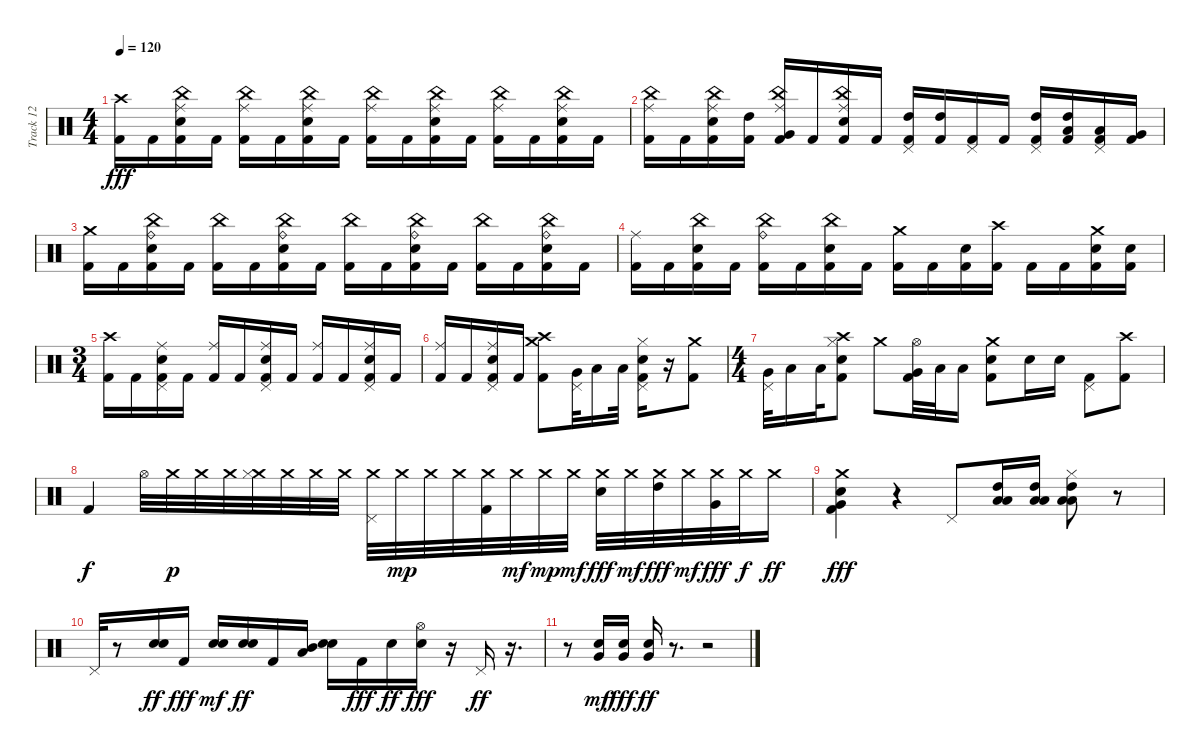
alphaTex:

\track ("Track 12" "Track 12") {instrument percussion}
\staff {score}
\articulation defaults
\ts (4 4)
\tempo 120
\clef neutral
\ks c
("Crash high (hit)" "Kick (hit) 2").16{dy fff} "Kick (hit) 2".16 ("Ride (middle)" "China (hit)" "Snare (hit) 2" "Kick (hit) 2").16 "Kick (hit) 2".16 ("Ride (middle)" "China (hit)" "Kick (hit) 2").16 "Kick (hit) 2".16 ("Ride (middle)" "China (hit)" "Snare (hit) 2" "Kick (hit) 2").16 "Kick (hit) 2".16 ("Ride (middle)" "China (hit)" "Kick (hit) 2").16 "Kick (hit) 2".16 ("Ride (middle)" "China (hit)" "Snare (hit) 2" "Kick (hit) 2").16 "Kick (hit) 2".16 ("Ride (middle)" "China (hit)" "Kick (hit) 2").16 "Kick (hit) 2".16 ("Ride (middle)" "China (hit)" "Snare (hit) 2" "Kick (hit) 2").16 "Kick (hit) 2".16 |
("Ride (middle)" "China (hit)" "Kick (hit) 2").16 "Kick (hit) 2".16 ("Ride (middle)" "China (hit)" "Snare (hit) 2" "Kick (hit) 2").16 ("High Tom (hit)" "Kick (hit) 2").16 ("Ride (middle)" "China (hit)" "Very Low Tom (hit)" "Kick (hit) 2").16 "Kick (hit) 2".16 ("Ride (middle)" "China (hit)" "Electric Snare (hit)" "Kick (hit) 2").16 "Kick (hit) 2".16 ("Pedal Hi-Hat (hit)" "High Tom (hit)" "Kick (hit) 2").16 ("High Tom (hit)" "Kick (hit) 2").16 ("Pedal Hi-Hat (hit)" "Kick (hit) 2").16 "Kick (hit) 2".16 ("Pedal Hi-Hat (hit)" "High Tom (hit)" "Kick (hit) 2").16 ("High Tom (hit)" "Low Tom (hit)" "Kick (hit) 2").16 ("Pedal Hi-Hat (hit)" "Low Tom (hit)" "Kick (hit) 2").16 ("Very Low Tom (hit)" "Kick (hit) 2").16 |
("Crash medium (hit)" "Kick (hit) 2").16 "Kick (hit) 2".16 ("Ride (bell)" "China (hit)" "Snare (hit) 2" "Kick (hit) 2").16 "Kick (hit) 2".16 ("China (hit)" "Kick (hit) 2").16 "Kick (hit) 2".16 ("Ride (bell)" "China (hit)" "Snare (hit) 2" "Kick (hit) 2").16 "Kick (hit) 2".16 ("China (hit)" "Kick (hit) 2").16 "Kick (hit) 2".16 ("Ride (bell)" "China (hit)" "Snare (hit) 2" "Kick (hit) 2").16 "Kick (hit) 2".16 ("China (hit)" "Kick (hit) 2").16 "Kick (hit) 2".16 ("Ride (bell)" "China (hit)" "Snare (hit) 2" "Kick (hit) 2").16 "Kick (hit) 2".16 |
("Ride (middle)" "Kick (hit) 2").16 "Kick (hit) 2".16 ("China (hit)" "Snare (hit) 2" "Kick (hit) 2").16 "Kick (hit) 2".16 ("Ride (bell)" "China (hit)" "Kick (hit) 2").16 "Kick (hit) 2".16 ("China (hit)" "Snare (hit) 2" "Kick (hit) 2").16 "Kick (hit) 2".16 ("Crash medium (hit)" "Kick (hit) 2").16 "Kick (hit) 2".16 ("Snare (hit) 2" "Kick (hit) 2").16 ("Crash high (hit)" "Kick (hit) 2").16 "Kick (hit) 2".16 "Kick (hit) 2".16 ("Crash medium (hit)" "Snare (hit) 2" "Kick (hit) 2").16 ("Snare (hit) 2" "Kick (hit) 2").16 |
\ts (3 4)
("Crash high (hit)" "Kick (hit) 2").16 "Kick (hit) 2".16 ("Ride (middle)" "Pedal Hi-Hat (hit)" "Snare (hit) 2" "Kick (hit) 2").16 "Kick (hit) 2".16 ("Ride (middle)" "Kick (hit) 2").16 "Kick (hit) 2".16 ("Ride (middle)" "Pedal Hi-Hat (hit)" "Snare (hit) 2" "Kick (hit) 2").16 "Kick (hit) 2".16 ("Ride (middle)" "Kick (hit) 2").16 "Kick (hit) 2".16 ("Ride (middle)" "Pedal Hi-Hat (hit)" "Electric Snare (hit)" "Kick (hit) 2").16 "Kick (hit) 2".16 |
("Ride (middle)" "Kick (hit) 2").16 "Kick (hit) 2".16 ("Ride (middle)" "Pedal Hi-Hat (hit)" "Snare (hit) 2" "Kick (hit) 2").16 "Kick (hit) 2".16 ("Crash medium (hit)" "Crash high (hit)" "Kick (hit) 2").8 ("Pedal Hi-Hat (hit)" "Very Low Tom (hit)").32 "Low Tom (hit)".16 "Low Floor Tom (hit)".32 ("Hi-Hat (closed)" "Pedal Hi-Hat (hit)" "Electric Snare (hit)" "Kick (hit) 2").16 r.16 ("Crash medium (hit)" "Kick (hit) 2").8 |
\ts (4 4)
("Pedal Hi-Hat (hit)" "Very Low Tom (hit)").32 "Low Tom (hit)".16 "Low Floor Tom (hit)".32 ("Crash high (hit)" "Hi-Hat (closed)" "Electric Snare (hit)" "Kick (hit) 2").8 "Crash medium (hit)".8 ("Hi-Hat (open)" "Very Low Tom (hit)" "Kick (hit) 2").32 "Low Tom (hit)".32 "Low Floor Tom (hit)".16 ("Crash medium (hit)" "Electric Snare (hit)" "Kick (hit) 2").8 "Snare (hit) 2".16 "Electric Snare (hit)".16 ("Pedal Hi-Hat (hit)" "Kick (hit) 2").8 ("Crash high (hit)" "Kick (hit) 2").8 |
"Kick (hit) 2".4{dy f} "Hi-Hat (open)".32 "Crash medium (hit)".32{dy p} "Crash medium (hit)".32 "Crash medium (hit)".32 ("Crash medium (hit)" "Hi-Hat (closed)").32 "Crash medium (hit)".32 "Crash medium (hit)".32 "Crash medium (hit)".32 ("Crash medium (hit)" "Pedal Hi-Hat (hit)").32 "Crash medium (hit)".32{dy mp} "Crash medium (hit)".32 "Crash medium (hit)".32 ("Crash medium (hit)" "Kick (hit) 2").32 "Crash medium (hit)".32{dy mf} "Crash medium (hit)".32{dy mp} "Crash medium (hit)".32{dy mf} ("Crash medium (hit)" "Electric Snare (hit)").32{dy fff} "Crash medium (hit)".32{dy mf} ("Crash medium (hit)" "High Tom (hit)").32{dy fff} "Crash medium (hit)".32{dy mf} ("Crash medium (hit)" "Very Low Tom (hit)").32{dy fff} "Crash medium (hit)".32{dy f} "Crash medium (hit)".16{dy ff} |
("Crash medium (hit)" "Very Low Tom (hit)" "Snare (hit) 2" "Kick (hit) 2").4{dy fff} r.4 "Pedal Hi-Hat (hit)".8 ("High Tom (hit)" "Low Tom (hit)" "Low Floor Tom (hit)").16 ("High Tom (hit)" "Low Tom (hit)" "Low Floor Tom (hit)").16 ("Hi-Hat (closed)" "High Tom (hit)" "Low Tom (hit)" "Low Floor Tom (hit)").8 r.8 |
"Pedal Hi-Hat (hit)".32 r.8 ("Snare (hit) 2" "Snare (hit) 2").16{dy ff} "Kick (hit) 2".16{dy fff} ("Snare (hit) 2" "Snare (hit) 2").16{dy mf} ("Snare (hit) 2" "Snare (hit) 2").16{dy ff} "Kick (hit) 2".16 ("Mid Tom (hit)" "Low Tom (hit)").16 ("Snare (hit) 2" "Electric Snare (hit)").16 "Kick (hit) 2".16{dy fff} "Snare (hit) 2".16{dy ff} ("Hi-Hat (open)" "Snare (hit) 2").16{dy fff} r.16 "Pedal Hi-Hat (hit)".16{dy ff} r.16{d} |
r.8 ("Electric Snare (hit)" "Very Low Tom (hit)").16{dy mf} ("Very Low Tom (hit)" "Snare (hit) 2").16{dy fff} ("Very Low Tom (hit)" "Snare (hit) 2").16{dy ff} r.8{d} r.2
